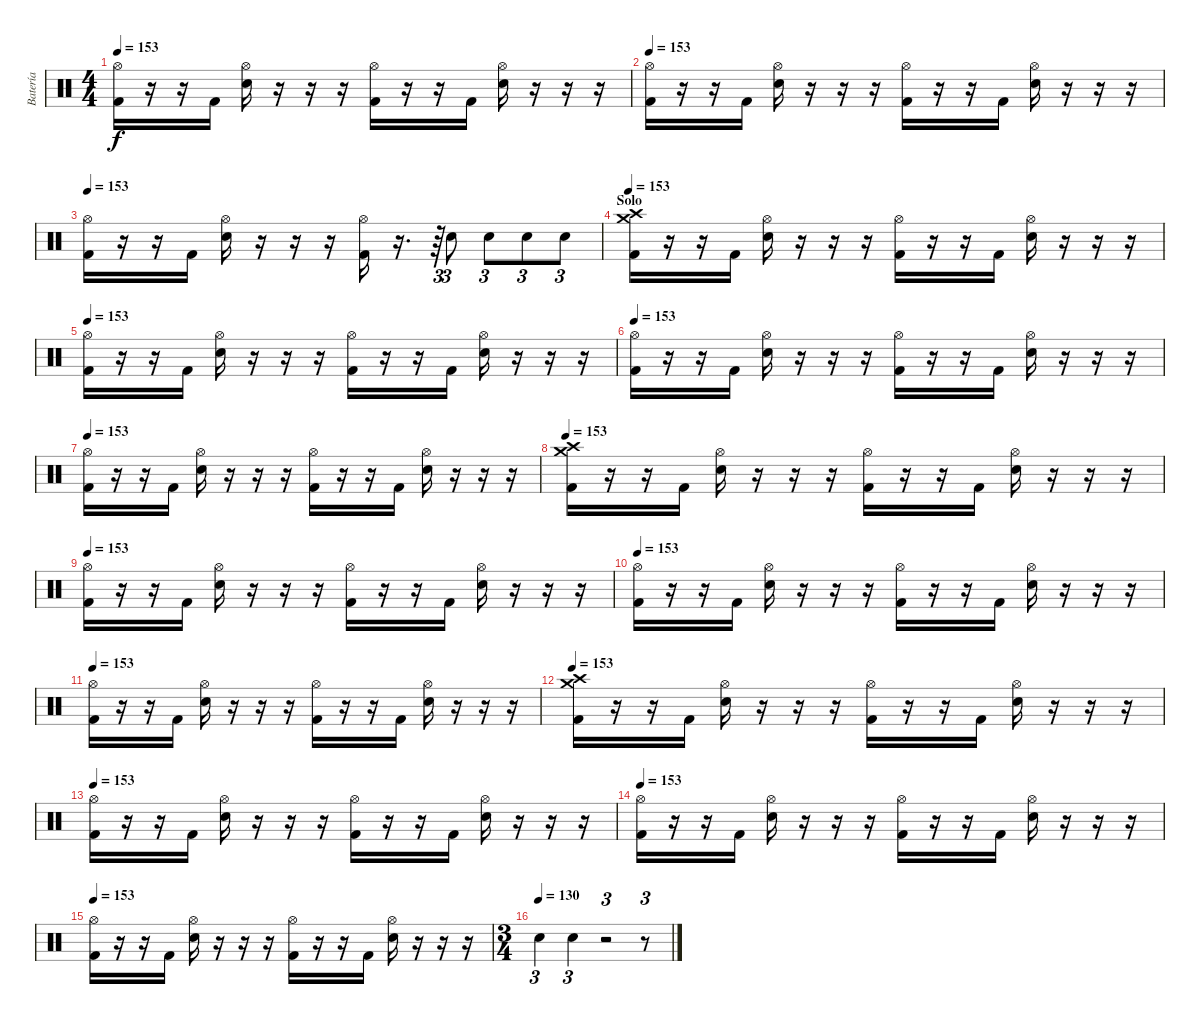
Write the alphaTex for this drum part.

\track ("Batería" "Batería") {instrument percussion}
\staff {score}
\articulation defaults
\ts (4 4)
\tempo 153
\clef neutral
\ks c
("Hi-Hat (open)" "Kick (hit) 2").16{dy f} r.16 r.16 "Kick (hit) 2".16 ("Hi-Hat (open)" "Snare (hit) 2").16 r.16 r.16 r.16 ("Hi-Hat (open)" "Kick (hit) 2").16 r.16 r.16 "Kick (hit) 2".16 ("Hi-Hat (open)" "Snare (hit) 2").16 r.16 r.16 r.16 |
\tempo 153
("Hi-Hat (open)" "Kick (hit) 2").16 r.16 r.16 "Kick (hit) 2".16 ("Hi-Hat (open)" "Snare (hit) 2").16 r.16 r.16 r.16 ("Hi-Hat (open)" "Kick (hit) 2").16 r.16 r.16 "Kick (hit) 2".16 ("Hi-Hat (open)" "Snare (hit) 2").16 r.16 r.16 r.16 |
\tempo 153
("Hi-Hat (open)" "Kick (hit) 2").16 r.16 r.16 "Kick (hit) 2".16 ("Hi-Hat (open)" "Snare (hit) 2").16 r.16 r.16 r.16 ("Hi-Hat (open)" "Kick (hit) 2").16 r.16{d} r.64{tu (3 2)} "Snare (hit) 2".8{tu (3 2)} "Snare (hit) 2".8{tu (3 2)} "Snare (hit) 2".8{tu (3 2)} "Snare (hit) 2".8{tu (3 2)} |
\section ("" "Solo")
\tempo 153
("Crash medium (hit)" "Crash high (hit)" "Kick (hit) 2").16 r.16 r.16 "Kick (hit) 2".16 ("Hi-Hat (open)" "Snare (hit) 2").16 r.16 r.16 r.16 ("Hi-Hat (open)" "Kick (hit) 2").16 r.16 r.16 "Kick (hit) 2".16 ("Hi-Hat (open)" "Snare (hit) 2").16 r.16 r.16 r.16 |
\tempo 153
("Hi-Hat (open)" "Kick (hit) 2").16 r.16 r.16 "Kick (hit) 2".16 ("Hi-Hat (open)" "Snare (hit) 2").16 r.16 r.16 r.16 ("Hi-Hat (open)" "Kick (hit) 2").16 r.16 r.16 "Kick (hit) 2".16 ("Hi-Hat (open)" "Snare (hit) 2").16 r.16 r.16 r.16 |
\tempo 153
("Hi-Hat (open)" "Kick (hit) 2").16 r.16 r.16 "Kick (hit) 2".16 ("Hi-Hat (open)" "Snare (hit) 2").16 r.16 r.16 r.16 ("Hi-Hat (open)" "Kick (hit) 2").16 r.16 r.16 "Kick (hit) 2".16 ("Hi-Hat (open)" "Snare (hit) 2").16 r.16 r.16 r.16 |
\tempo 153
("Hi-Hat (open)" "Kick (hit) 2").16 r.16 r.16 "Kick (hit) 2".16 ("Hi-Hat (open)" "Snare (hit) 2").16 r.16 r.16 r.16 ("Hi-Hat (open)" "Kick (hit) 2").16 r.16 r.16 "Kick (hit) 2".16 ("Hi-Hat (open)" "Snare (hit) 2").16 r.16 r.16 r.16 |
\tempo 153
("Crash medium (hit)" "Crash high (hit)" "Kick (hit) 2").16 r.16 r.16 "Kick (hit) 2".16 ("Hi-Hat (open)" "Snare (hit) 2").16 r.16 r.16 r.16 ("Hi-Hat (open)" "Kick (hit) 2").16 r.16 r.16 "Kick (hit) 2".16 ("Hi-Hat (open)" "Snare (hit) 2").16 r.16 r.16 r.16 |
\tempo 153
("Hi-Hat (open)" "Kick (hit) 2").16 r.16 r.16 "Kick (hit) 2".16 ("Hi-Hat (open)" "Snare (hit) 2").16 r.16 r.16 r.16 ("Hi-Hat (open)" "Kick (hit) 2").16 r.16 r.16 "Kick (hit) 2".16 ("Hi-Hat (open)" "Snare (hit) 2").16 r.16 r.16 r.16 |
\tempo 153
("Hi-Hat (open)" "Kick (hit) 2").16 r.16 r.16 "Kick (hit) 2".16 ("Hi-Hat (open)" "Snare (hit) 2").16 r.16 r.16 r.16 ("Hi-Hat (open)" "Kick (hit) 2").16 r.16 r.16 "Kick (hit) 2".16 ("Hi-Hat (open)" "Snare (hit) 2").16 r.16 r.16 r.16 |
\tempo 153
("Hi-Hat (open)" "Kick (hit) 2").16 r.16 r.16 "Kick (hit) 2".16 ("Hi-Hat (open)" "Snare (hit) 2").16 r.16 r.16 r.16 ("Hi-Hat (open)" "Kick (hit) 2").16 r.16 r.16 "Kick (hit) 2".16 ("Hi-Hat (open)" "Snare (hit) 2").16 r.16 r.16 r.16 |
\tempo 153
("Crash medium (hit)" "Crash high (hit)" "Kick (hit) 2").16 r.16 r.16 "Kick (hit) 2".16 ("Hi-Hat (open)" "Snare (hit) 2").16 r.16 r.16 r.16 ("Hi-Hat (open)" "Kick (hit) 2").16 r.16 r.16 "Kick (hit) 2".16 ("Hi-Hat (open)" "Snare (hit) 2").16 r.16 r.16 r.16 |
\tempo 153
("Hi-Hat (open)" "Kick (hit) 2").16 r.16 r.16 "Kick (hit) 2".16 ("Hi-Hat (open)" "Snare (hit) 2").16 r.16 r.16 r.16 ("Hi-Hat (open)" "Kick (hit) 2").16 r.16 r.16 "Kick (hit) 2".16 ("Hi-Hat (open)" "Snare (hit) 2").16 r.16 r.16 r.16 |
\tempo 153
("Hi-Hat (open)" "Kick (hit) 2").16 r.16 r.16 "Kick (hit) 2".16 ("Hi-Hat (open)" "Snare (hit) 2").16 r.16 r.16 r.16 ("Hi-Hat (open)" "Kick (hit) 2").16 r.16 r.16 "Kick (hit) 2".16 ("Hi-Hat (open)" "Snare (hit) 2").16 r.16 r.16 r.16 |
\tempo 153
("Hi-Hat (open)" "Kick (hit) 2").16 r.16 r.16 "Kick (hit) 2".16 ("Hi-Hat (open)" "Snare (hit) 2").16 r.16 r.16 r.16 ("Hi-Hat (open)" "Kick (hit) 2").16 r.16 r.16 "Kick (hit) 2".16 ("Hi-Hat (open)" "Snare (hit) 2").16 r.16 r.16 r.16 |
\ts (3 4)
\tempo (130)
"Snare (hit) 2".4{tu (3 2)} "Snare (hit) 2".4{tu (3 2)} r.2{tu (3 2)} r.8{tu (3 2)}
